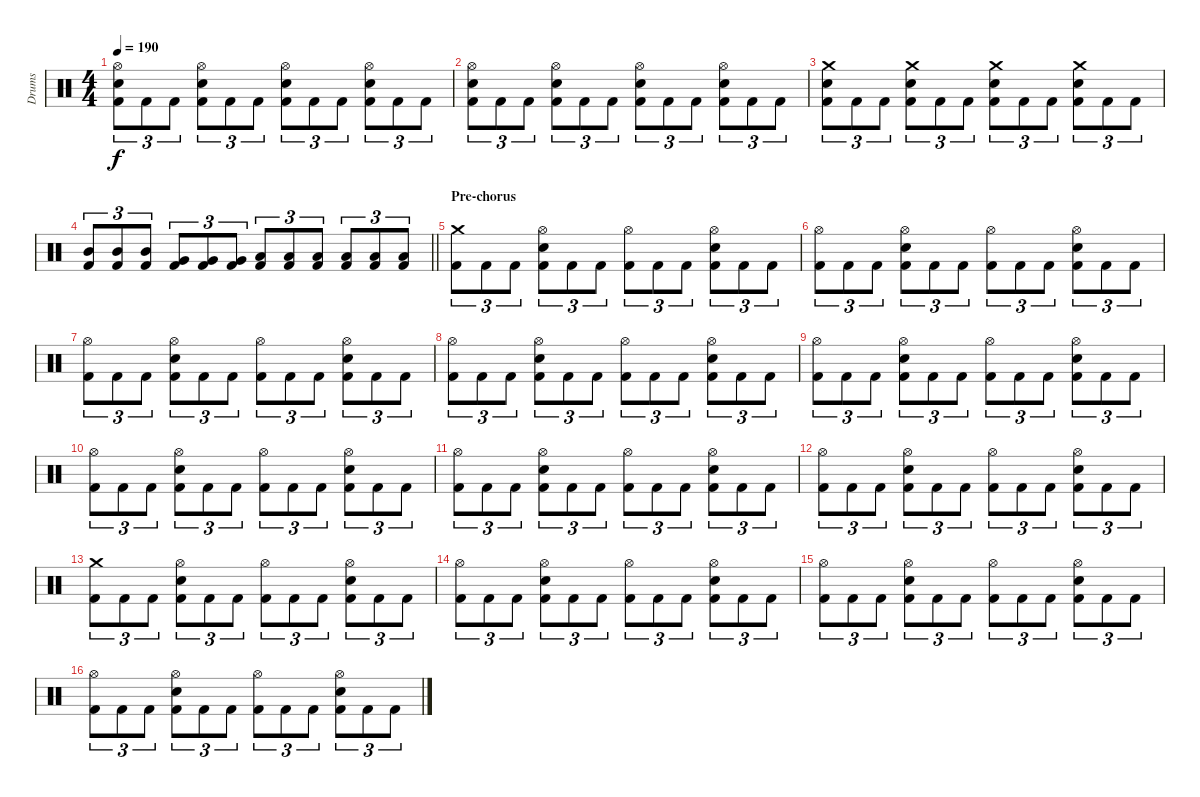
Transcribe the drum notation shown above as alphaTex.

\track ("Drums" "Drums") {instrument percussion}
\staff {score}
\articulation defaults
\ts (4 4)
\tempo 190
\clef neutral
\ks c
("Hi-Hat (open)" "Electric Snare (hit)" "Kick (hit) 2").8{tu (3 2) dy f} "Kick (hit) 2".8{tu (3 2)} "Kick (hit) 2".8{tu (3 2)} ("Hi-Hat (open)" "Electric Snare (hit)" "Kick (hit) 2").8{tu (3 2)} "Kick (hit) 2".8{tu (3 2)} "Kick (hit) 2".8{tu (3 2)} ("Hi-Hat (open)" "Electric Snare (hit)" "Kick (hit) 2").8{tu (3 2)} "Kick (hit) 2".8{tu (3 2)} "Kick (hit) 2".8{tu (3 2)} ("Hi-Hat (open)" "Electric Snare (hit)" "Kick (hit) 2").8{tu (3 2)} "Kick (hit) 2".8{tu (3 2)} "Kick (hit) 2".8{tu (3 2)} |
("Hi-Hat (open)" "Electric Snare (hit)" "Kick (hit) 2").8{tu (3 2)} "Kick (hit) 2".8{tu (3 2)} "Kick (hit) 2".8{tu (3 2)} ("Hi-Hat (open)" "Electric Snare (hit)" "Kick (hit) 2").8{tu (3 2)} "Kick (hit) 2".8{tu (3 2)} "Kick (hit) 2".8{tu (3 2)} ("Hi-Hat (open)" "Electric Snare (hit)" "Kick (hit) 2").8{tu (3 2)} "Kick (hit) 2".8{tu (3 2)} "Kick (hit) 2".8{tu (3 2)} ("Hi-Hat (open)" "Electric Snare (hit)" "Kick (hit) 2").8{tu (3 2)} "Kick (hit) 2".8{tu (3 2)} "Kick (hit) 2".8{tu (3 2)} |
("Crash medium (hit)" "Electric Snare (hit)" "Kick (hit) 2").8{tu (3 2)} "Kick (hit) 2".8{tu (3 2)} "Kick (hit) 2".8{tu (3 2)} ("Crash medium (hit)" "Electric Snare (hit)" "Kick (hit) 2").8{tu (3 2)} "Kick (hit) 2".8{tu (3 2)} "Kick (hit) 2".8{tu (3 2)} ("Crash medium (hit)" "Electric Snare (hit)" "Kick (hit) 2").8{tu (3 2)} "Kick (hit) 2".8{tu (3 2)} "Kick (hit) 2".8{tu (3 2)} ("Crash medium (hit)" "Electric Snare (hit)" "Kick (hit) 2").8{tu (3 2)} "Kick (hit) 2".8{tu (3 2)} "Kick (hit) 2".8{tu (3 2)} |
\barLineRight lightlight
("Mid Tom (hit)" "Kick (hit) 2").8{tu (3 2)} ("Mid Tom (hit)" "Kick (hit) 2").8{tu (3 2)} ("Mid Tom (hit)" "Kick (hit) 2").8{tu (3 2)} ("Very Low Tom (hit)" "Kick (hit) 2").8{tu (3 2)} ("Very Low Tom (hit)" "Kick (hit) 2").8{tu (3 2)} ("Very Low Tom (hit)" "Kick (hit) 2").8{tu (3 2)} ("Low Tom (hit)" "Kick (hit) 2").8{tu (3 2)} ("Low Tom (hit)" "Kick (hit) 2").8{tu (3 2)} ("Low Tom (hit)" "Kick (hit) 2").8{tu (3 2)} ("Low Floor Tom (hit)" "Kick (hit) 2").8{tu (3 2)} ("Low Floor Tom (hit)" "Kick (hit) 2").8{tu (3 2)} ("Low Floor Tom (hit)" "Kick (hit) 2").8{tu (3 2)} |
\section ("" "Pre-chorus")
("Crash medium (hit)" "Kick (hit) 2").8{tu (3 2)} "Kick (hit) 2".8{tu (3 2)} "Kick (hit) 2".8{tu (3 2)} ("Hi-Hat (open)" "Electric Snare (hit)" "Kick (hit) 2").8{tu (3 2)} "Kick (hit) 2".8{tu (3 2)} "Kick (hit) 2".8{tu (3 2)} ("Hi-Hat (open)" "Kick (hit) 2").8{tu (3 2)} "Kick (hit) 2".8{tu (3 2)} "Kick (hit) 2".8{tu (3 2)} ("Hi-Hat (open)" "Electric Snare (hit)" "Kick (hit) 2").8{tu (3 2)} "Kick (hit) 2".8{tu (3 2)} "Kick (hit) 2".8{tu (3 2)} |
("Hi-Hat (open)" "Kick (hit) 2").8{tu (3 2)} "Kick (hit) 2".8{tu (3 2)} "Kick (hit) 2".8{tu (3 2)} ("Hi-Hat (open)" "Electric Snare (hit)" "Kick (hit) 2").8{tu (3 2)} "Kick (hit) 2".8{tu (3 2)} "Kick (hit) 2".8{tu (3 2)} ("Hi-Hat (open)" "Kick (hit) 2").8{tu (3 2)} "Kick (hit) 2".8{tu (3 2)} "Kick (hit) 2".8{tu (3 2)} ("Hi-Hat (open)" "Electric Snare (hit)" "Kick (hit) 2").8{tu (3 2)} "Kick (hit) 2".8{tu (3 2)} "Kick (hit) 2".8{tu (3 2)} |
("Hi-Hat (open)" "Kick (hit) 2").8{tu (3 2)} "Kick (hit) 2".8{tu (3 2)} "Kick (hit) 2".8{tu (3 2)} ("Hi-Hat (open)" "Electric Snare (hit)" "Kick (hit) 2").8{tu (3 2)} "Kick (hit) 2".8{tu (3 2)} "Kick (hit) 2".8{tu (3 2)} ("Hi-Hat (open)" "Kick (hit) 2").8{tu (3 2)} "Kick (hit) 2".8{tu (3 2)} "Kick (hit) 2".8{tu (3 2)} ("Hi-Hat (open)" "Electric Snare (hit)" "Kick (hit) 2").8{tu (3 2)} "Kick (hit) 2".8{tu (3 2)} "Kick (hit) 2".8{tu (3 2)} |
("Hi-Hat (open)" "Kick (hit) 2").8{tu (3 2)} "Kick (hit) 2".8{tu (3 2)} "Kick (hit) 2".8{tu (3 2)} ("Hi-Hat (open)" "Electric Snare (hit)" "Kick (hit) 2").8{tu (3 2)} "Kick (hit) 2".8{tu (3 2)} "Kick (hit) 2".8{tu (3 2)} ("Hi-Hat (open)" "Kick (hit) 2").8{tu (3 2)} "Kick (hit) 2".8{tu (3 2)} "Kick (hit) 2".8{tu (3 2)} ("Hi-Hat (open)" "Electric Snare (hit)" "Kick (hit) 2").8{tu (3 2)} "Kick (hit) 2".8{tu (3 2)} "Kick (hit) 2".8{tu (3 2)} |
("Hi-Hat (open)" "Kick (hit) 2").8{tu (3 2)} "Kick (hit) 2".8{tu (3 2)} "Kick (hit) 2".8{tu (3 2)} ("Hi-Hat (open)" "Electric Snare (hit)" "Kick (hit) 2").8{tu (3 2)} "Kick (hit) 2".8{tu (3 2)} "Kick (hit) 2".8{tu (3 2)} ("Hi-Hat (open)" "Kick (hit) 2").8{tu (3 2)} "Kick (hit) 2".8{tu (3 2)} "Kick (hit) 2".8{tu (3 2)} ("Hi-Hat (open)" "Electric Snare (hit)" "Kick (hit) 2").8{tu (3 2)} "Kick (hit) 2".8{tu (3 2)} "Kick (hit) 2".8{tu (3 2)} |
("Hi-Hat (open)" "Kick (hit) 2").8{tu (3 2)} "Kick (hit) 2".8{tu (3 2)} "Kick (hit) 2".8{tu (3 2)} ("Hi-Hat (open)" "Electric Snare (hit)" "Kick (hit) 2").8{tu (3 2)} "Kick (hit) 2".8{tu (3 2)} "Kick (hit) 2".8{tu (3 2)} ("Hi-Hat (open)" "Kick (hit) 2").8{tu (3 2)} "Kick (hit) 2".8{tu (3 2)} "Kick (hit) 2".8{tu (3 2)} ("Hi-Hat (open)" "Electric Snare (hit)" "Kick (hit) 2").8{tu (3 2)} "Kick (hit) 2".8{tu (3 2)} "Kick (hit) 2".8{tu (3 2)} |
("Hi-Hat (open)" "Kick (hit) 2").8{tu (3 2)} "Kick (hit) 2".8{tu (3 2)} "Kick (hit) 2".8{tu (3 2)} ("Hi-Hat (open)" "Electric Snare (hit)" "Kick (hit) 2").8{tu (3 2)} "Kick (hit) 2".8{tu (3 2)} "Kick (hit) 2".8{tu (3 2)} ("Hi-Hat (open)" "Kick (hit) 2").8{tu (3 2)} "Kick (hit) 2".8{tu (3 2)} "Kick (hit) 2".8{tu (3 2)} ("Hi-Hat (open)" "Electric Snare (hit)" "Kick (hit) 2").8{tu (3 2)} "Kick (hit) 2".8{tu (3 2)} "Kick (hit) 2".8{tu (3 2)} |
("Hi-Hat (open)" "Kick (hit) 2").8{tu (3 2)} "Kick (hit) 2".8{tu (3 2)} "Kick (hit) 2".8{tu (3 2)} ("Hi-Hat (open)" "Electric Snare (hit)" "Kick (hit) 2").8{tu (3 2)} "Kick (hit) 2".8{tu (3 2)} "Kick (hit) 2".8{tu (3 2)} ("Hi-Hat (open)" "Kick (hit) 2").8{tu (3 2)} "Kick (hit) 2".8{tu (3 2)} "Kick (hit) 2".8{tu (3 2)} ("Hi-Hat (open)" "Electric Snare (hit)" "Kick (hit) 2").8{tu (3 2)} "Kick (hit) 2".8{tu (3 2)} "Kick (hit) 2".8{tu (3 2)} |
("Crash medium (hit)" "Kick (hit) 2").8{tu (3 2)} "Kick (hit) 2".8{tu (3 2)} "Kick (hit) 2".8{tu (3 2)} ("Hi-Hat (open)" "Electric Snare (hit)" "Kick (hit) 2").8{tu (3 2)} "Kick (hit) 2".8{tu (3 2)} "Kick (hit) 2".8{tu (3 2)} ("Hi-Hat (open)" "Kick (hit) 2").8{tu (3 2)} "Kick (hit) 2".8{tu (3 2)} "Kick (hit) 2".8{tu (3 2)} ("Hi-Hat (open)" "Electric Snare (hit)" "Kick (hit) 2").8{tu (3 2)} "Kick (hit) 2".8{tu (3 2)} "Kick (hit) 2".8{tu (3 2)} |
("Hi-Hat (open)" "Kick (hit) 2").8{tu (3 2)} "Kick (hit) 2".8{tu (3 2)} "Kick (hit) 2".8{tu (3 2)} ("Hi-Hat (open)" "Electric Snare (hit)" "Kick (hit) 2").8{tu (3 2)} "Kick (hit) 2".8{tu (3 2)} "Kick (hit) 2".8{tu (3 2)} ("Hi-Hat (open)" "Kick (hit) 2").8{tu (3 2)} "Kick (hit) 2".8{tu (3 2)} "Kick (hit) 2".8{tu (3 2)} ("Hi-Hat (open)" "Electric Snare (hit)" "Kick (hit) 2").8{tu (3 2)} "Kick (hit) 2".8{tu (3 2)} "Kick (hit) 2".8{tu (3 2)} |
("Hi-Hat (open)" "Kick (hit) 2").8{tu (3 2)} "Kick (hit) 2".8{tu (3 2)} "Kick (hit) 2".8{tu (3 2)} ("Hi-Hat (open)" "Electric Snare (hit)" "Kick (hit) 2").8{tu (3 2)} "Kick (hit) 2".8{tu (3 2)} "Kick (hit) 2".8{tu (3 2)} ("Hi-Hat (open)" "Kick (hit) 2").8{tu (3 2)} "Kick (hit) 2".8{tu (3 2)} "Kick (hit) 2".8{tu (3 2)} ("Hi-Hat (open)" "Electric Snare (hit)" "Kick (hit) 2").8{tu (3 2)} "Kick (hit) 2".8{tu (3 2)} "Kick (hit) 2".8{tu (3 2)} |
("Hi-Hat (open)" "Kick (hit) 2").8{tu (3 2)} "Kick (hit) 2".8{tu (3 2)} "Kick (hit) 2".8{tu (3 2)} ("Hi-Hat (open)" "Electric Snare (hit)" "Kick (hit) 2").8{tu (3 2)} "Kick (hit) 2".8{tu (3 2)} "Kick (hit) 2".8{tu (3 2)} ("Hi-Hat (open)" "Kick (hit) 2").8{tu (3 2)} "Kick (hit) 2".8{tu (3 2)} "Kick (hit) 2".8{tu (3 2)} ("Hi-Hat (open)" "Electric Snare (hit)" "Kick (hit) 2").8{tu (3 2)} "Kick (hit) 2".8{tu (3 2)} "Kick (hit) 2".8{tu (3 2)}
